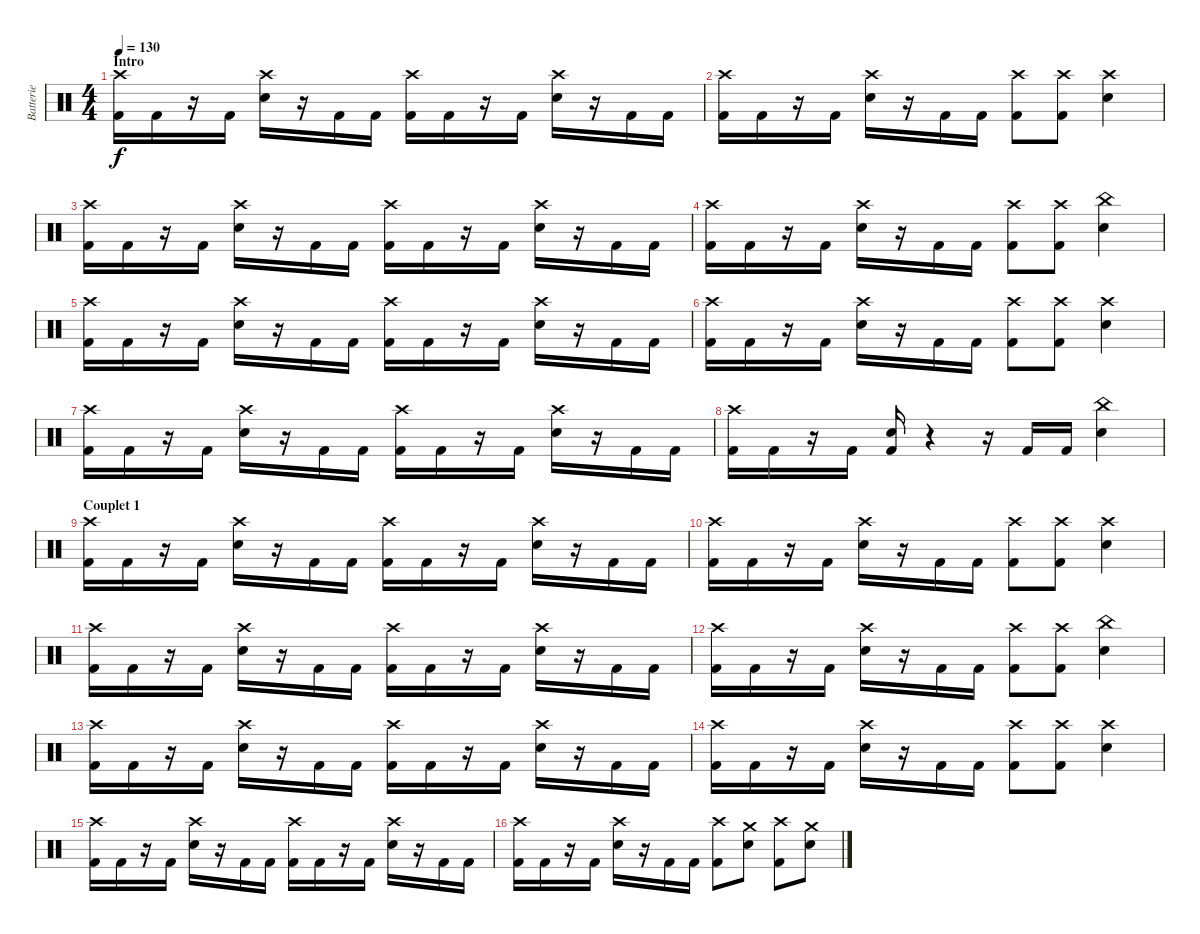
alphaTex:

\track ("Batterie" "Batterie") {instrument percussion}
\staff {score}
\articulation defaults
\ts (4 4)
\section ("" "Intro")
\tempo 130
\clef neutral
\ks c
("Crash high (hit)" "Kick (hit) 2").16{dy f} "Kick (hit) 2".16 r.16 "Kick (hit) 2".16 ("Crash high (hit)" "Electric Snare (hit)").16 r.16 "Kick (hit) 2".16 "Kick (hit) 2".16 ("Crash high (hit)" "Kick (hit) 2").16 "Kick (hit) 2".16 r.16 "Kick (hit) 2".16 ("Crash high (hit)" "Electric Snare (hit)").16 r.16 "Kick (hit) 2".16 "Kick (hit) 2".16 |
("Crash high (hit)" "Kick (hit) 2").16 "Kick (hit) 2".16 r.16 "Kick (hit) 2".16 ("Crash high (hit)" "Electric Snare (hit)").16 r.16 "Kick (hit) 2".16 "Kick (hit) 2".16 ("Crash high (hit)" "Kick (hit) 2").8 ("Crash high (hit)" "Kick (hit) 2").8 ("Crash high (hit)" "Electric Snare (hit)").4 |
("Crash high (hit)" "Kick (hit) 2").16 "Kick (hit) 2".16 r.16 "Kick (hit) 2".16 ("Crash high (hit)" "Electric Snare (hit)").16 r.16 "Kick (hit) 2".16 "Kick (hit) 2".16 ("Crash high (hit)" "Kick (hit) 2").16 "Kick (hit) 2".16 r.16 "Kick (hit) 2".16 ("Crash high (hit)" "Electric Snare (hit)").16 r.16 "Kick (hit) 2".16 "Kick (hit) 2".16 |
("Crash high (hit)" "Kick (hit) 2").16 "Kick (hit) 2".16 r.16 "Kick (hit) 2".16 ("Crash high (hit)" "Electric Snare (hit)").16 r.16 "Kick (hit) 2".16 "Kick (hit) 2".16 ("Crash high (hit)" "Kick (hit) 2").8 ("Crash high (hit)" "Kick (hit) 2").8 ("China (hit)" "Electric Snare (hit)").4 |
("Crash high (hit)" "Kick (hit) 2").16 "Kick (hit) 2".16 r.16 "Kick (hit) 2".16 ("Crash high (hit)" "Electric Snare (hit)").16 r.16 "Kick (hit) 2".16 "Kick (hit) 2".16 ("Crash high (hit)" "Kick (hit) 2").16 "Kick (hit) 2".16 r.16 "Kick (hit) 2".16 ("Crash high (hit)" "Electric Snare (hit)").16 r.16 "Kick (hit) 2".16 "Kick (hit) 2".16 |
("Crash high (hit)" "Kick (hit) 2").16 "Kick (hit) 2".16 r.16 "Kick (hit) 2".16 ("Crash high (hit)" "Electric Snare (hit)").16 r.16 "Kick (hit) 2".16 "Kick (hit) 2".16 ("Crash high (hit)" "Kick (hit) 2").8 ("Crash high (hit)" "Kick (hit) 2").8 ("Crash high (hit)" "Electric Snare (hit)").4 |
("Crash high (hit)" "Kick (hit) 2").16 "Kick (hit) 2".16 r.16 "Kick (hit) 2".16 ("Crash high (hit)" "Electric Snare (hit)").16 r.16 "Kick (hit) 2".16 "Kick (hit) 2".16 ("Crash high (hit)" "Kick (hit) 2").16 "Kick (hit) 2".16 r.16 "Kick (hit) 2".16 ("Crash high (hit)" "Electric Snare (hit)").16 r.16 "Kick (hit) 2".16 "Kick (hit) 2".16 |
\section ("" "")
("Crash high (hit)" "Kick (hit) 2").16 "Kick (hit) 2".16 r.16 "Kick (hit) 2".16 ("Electric Snare (hit)" "Kick (hit) 2").16 r.4 r.16 "Kick (hit) 2".16 "Kick (hit) 2".16 ("China (hit)" "Electric Snare (hit)").4 |
\section ("" "Couplet 1")
("Crash high (hit)" "Kick (hit) 2").16 "Kick (hit) 2".16 r.16 "Kick (hit) 2".16 ("Crash high (hit)" "Electric Snare (hit)").16 r.16 "Kick (hit) 2".16 "Kick (hit) 2".16 ("Crash high (hit)" "Kick (hit) 2").16 "Kick (hit) 2".16 r.16 "Kick (hit) 2".16 ("Crash high (hit)" "Electric Snare (hit)").16 r.16 "Kick (hit) 2".16 "Kick (hit) 2".16 |
("Crash high (hit)" "Kick (hit) 2").16 "Kick (hit) 2".16 r.16 "Kick (hit) 2".16 ("Crash high (hit)" "Electric Snare (hit)").16 r.16 "Kick (hit) 2".16 "Kick (hit) 2".16 ("Crash high (hit)" "Kick (hit) 2").8 ("Crash high (hit)" "Kick (hit) 2").8 ("Crash high (hit)" "Electric Snare (hit)").4 |
("Crash high (hit)" "Kick (hit) 2").16 "Kick (hit) 2".16 r.16 "Kick (hit) 2".16 ("Crash high (hit)" "Electric Snare (hit)").16 r.16 "Kick (hit) 2".16 "Kick (hit) 2".16 ("Crash high (hit)" "Kick (hit) 2").16 "Kick (hit) 2".16 r.16 "Kick (hit) 2".16 ("Crash high (hit)" "Electric Snare (hit)").16 r.16 "Kick (hit) 2".16 "Kick (hit) 2".16 |
("Crash high (hit)" "Kick (hit) 2").16 "Kick (hit) 2".16 r.16 "Kick (hit) 2".16 ("Crash high (hit)" "Electric Snare (hit)").16 r.16 "Kick (hit) 2".16 "Kick (hit) 2".16 ("Crash high (hit)" "Kick (hit) 2").8 ("Crash high (hit)" "Kick (hit) 2").8 ("China (hit)" "Electric Snare (hit)").4 |
("Crash high (hit)" "Kick (hit) 2").16 "Kick (hit) 2".16 r.16 "Kick (hit) 2".16 ("Crash high (hit)" "Electric Snare (hit)").16 r.16 "Kick (hit) 2".16 "Kick (hit) 2".16 ("Crash high (hit)" "Kick (hit) 2").16 "Kick (hit) 2".16 r.16 "Kick (hit) 2".16 ("Crash high (hit)" "Electric Snare (hit)").16 r.16 "Kick (hit) 2".16 "Kick (hit) 2".16 |
("Crash high (hit)" "Kick (hit) 2").16 "Kick (hit) 2".16 r.16 "Kick (hit) 2".16 ("Crash high (hit)" "Electric Snare (hit)").16 r.16 "Kick (hit) 2".16 "Kick (hit) 2".16 ("Crash high (hit)" "Kick (hit) 2").8 ("Crash high (hit)" "Kick (hit) 2").8 ("Crash high (hit)" "Electric Snare (hit)").4 |
("Crash high (hit)" "Kick (hit) 2").16 "Kick (hit) 2".16 r.16 "Kick (hit) 2".16 ("Crash high (hit)" "Electric Snare (hit)").16 r.16 "Kick (hit) 2".16 "Kick (hit) 2".16 ("Crash high (hit)" "Kick (hit) 2").16 "Kick (hit) 2".16 r.16 "Kick (hit) 2".16 ("Crash high (hit)" "Electric Snare (hit)").16 r.16 "Kick (hit) 2".16 "Kick (hit) 2".16 |
("Crash high (hit)" "Kick (hit) 2").16 "Kick (hit) 2".16 r.16 "Kick (hit) 2".16 ("Crash high (hit)" "Electric Snare (hit)").16 r.16 "Kick (hit) 2".16 "Kick (hit) 2".16 ("Crash high (hit)" "Kick (hit) 2").8 ("Crash medium (hit)" "Electric Snare (hit)").8 ("Crash high (hit)" "Kick (hit) 2").8 ("Crash medium (hit)" "Electric Snare (hit)").8
